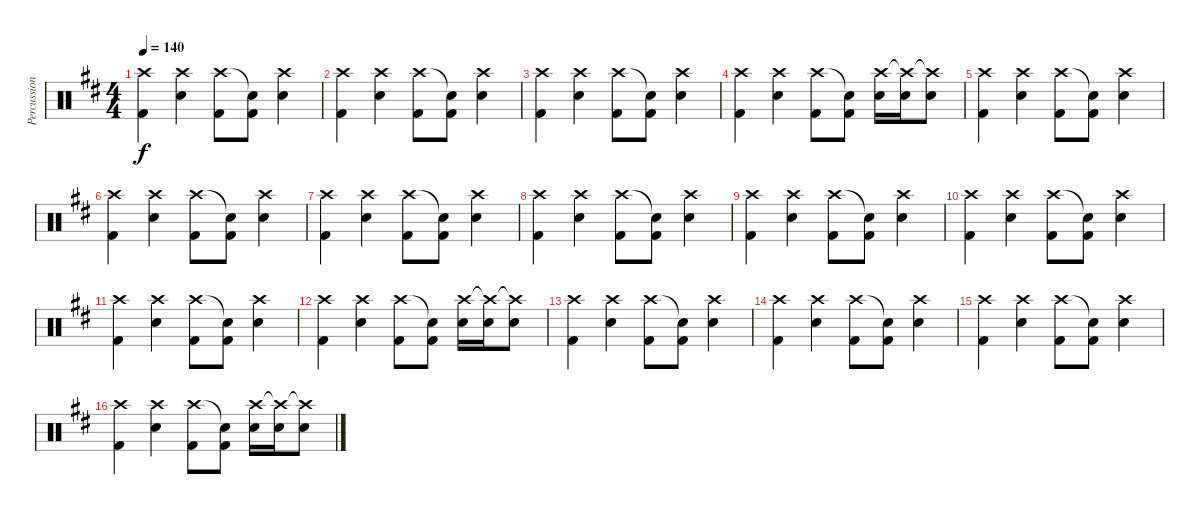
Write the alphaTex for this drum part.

\track ("Percussion" "Percussion") {instrument percussion}
\staff {score}
\articulation defaults
\ts (4 4)
\tempo 140
\clef neutral
\ks bminor
("Crash high (hit)" "Kick (hit) 2").4{dy f} ("Crash high (hit)" "Snare (hit) 2").4 ("Crash high (hit)" "Kick (hit) 2").8 ("Snare (hit)"{t} "Kick (hit) 2").8 ("Crash high (hit)" "Snare (hit) 2").4 |
("Crash high (hit)" "Kick (hit) 2").4 ("Crash high (hit)" "Snare (hit) 2").4 ("Crash high (hit)" "Kick (hit) 2").8 ("Snare (hit)"{t} "Kick (hit) 2").8 ("Crash high (hit)" "Snare (hit) 2").4 |
("Crash high (hit)" "Kick (hit) 2").4 ("Crash high (hit)" "Snare (hit) 2").4 ("Crash high (hit)" "Kick (hit) 2").8 ("Snare (hit)"{t} "Kick (hit) 2").8 ("Crash high (hit)" "Snare (hit) 2").4 |
("Crash high (hit)" "Kick (hit) 2").4 ("Crash high (hit)" "Snare (hit) 2").4 ("Crash high (hit)" "Kick (hit) 2").8 ("Snare (hit)"{t} "Kick (hit) 2").8 ("Crash high (hit)" "Snare (hit) 2").16 ("Crash high (hit)"{t} "Snare (hit) 2").16 ("Crash high (hit)"{t} "Snare (hit) 2").8 |
("Crash high (hit)" "Kick (hit) 2").4 ("Crash high (hit)" "Snare (hit) 2").4 ("Crash high (hit)" "Kick (hit) 2").8 ("Snare (hit)"{t} "Kick (hit) 2").8 ("Crash high (hit)" "Snare (hit) 2").4 |
("Crash high (hit)" "Kick (hit) 2").4 ("Crash high (hit)" "Snare (hit) 2").4 ("Crash high (hit)" "Kick (hit) 2").8 ("Snare (hit)"{t} "Kick (hit) 2").8 ("Crash high (hit)" "Snare (hit) 2").4 |
("Crash high (hit)" "Kick (hit) 2").4 ("Crash high (hit)" "Snare (hit) 2").4 ("Crash high (hit)" "Kick (hit) 2").8 ("Snare (hit)"{t} "Kick (hit) 2").8 ("Crash high (hit)" "Snare (hit) 2").4 |
("Crash high (hit)" "Kick (hit) 2").4 ("Crash high (hit)" "Snare (hit) 2").4 ("Crash high (hit)" "Kick (hit) 2").8 ("Snare (hit)"{t} "Kick (hit) 2").8 ("Crash high (hit)" "Snare (hit) 2").4 |
("Crash high (hit)" "Kick (hit) 2").4 ("Crash high (hit)" "Snare (hit) 2").4 ("Crash high (hit)" "Kick (hit) 2").8 ("Snare (hit)"{t} "Kick (hit) 2").8 ("Crash high (hit)" "Snare (hit) 2").4 |
("Crash high (hit)" "Kick (hit) 2").4 ("Crash high (hit)" "Snare (hit) 2").4 ("Crash high (hit)" "Kick (hit) 2").8 ("Snare (hit)"{t} "Kick (hit) 2").8 ("Crash high (hit)" "Snare (hit) 2").4 |
("Crash high (hit)" "Kick (hit) 2").4 ("Crash high (hit)" "Snare (hit) 2").4 ("Crash high (hit)" "Kick (hit) 2").8 ("Snare (hit)"{t} "Kick (hit) 2").8 ("Crash high (hit)" "Snare (hit) 2").4 |
("Crash high (hit)" "Kick (hit) 2").4 ("Crash high (hit)" "Snare (hit) 2").4 ("Crash high (hit)" "Kick (hit) 2").8 ("Snare (hit)"{t} "Kick (hit) 2").8 ("Crash high (hit)" "Snare (hit) 2").16 ("Crash high (hit)"{t} "Snare (hit) 2").16 ("Crash high (hit)"{t} "Snare (hit) 2").8 |
("Crash high (hit)" "Kick (hit) 2").4 ("Crash high (hit)" "Snare (hit) 2").4 ("Crash high (hit)" "Kick (hit) 2").8 ("Snare (hit)"{t} "Kick (hit) 2").8 ("Crash high (hit)" "Snare (hit) 2").4 |
("Crash high (hit)" "Kick (hit) 2").4 ("Crash high (hit)" "Snare (hit) 2").4 ("Crash high (hit)" "Kick (hit) 2").8 ("Snare (hit)"{t} "Kick (hit) 2").8 ("Crash high (hit)" "Snare (hit) 2").4 |
("Crash high (hit)" "Kick (hit) 2").4 ("Crash high (hit)" "Snare (hit) 2").4 ("Crash high (hit)" "Kick (hit) 2").8 ("Snare (hit)"{t} "Kick (hit) 2").8 ("Crash high (hit)" "Snare (hit) 2").4 |
("Crash high (hit)" "Kick (hit) 2").4 ("Crash high (hit)" "Snare (hit) 2").4 ("Crash high (hit)" "Kick (hit) 2").8 ("Snare (hit)"{t} "Kick (hit) 2").8 ("Crash high (hit)" "Snare (hit) 2").16 ("Crash high (hit)"{t} "Snare (hit) 2").16 ("Crash high (hit)"{t} "Snare (hit) 2").8
